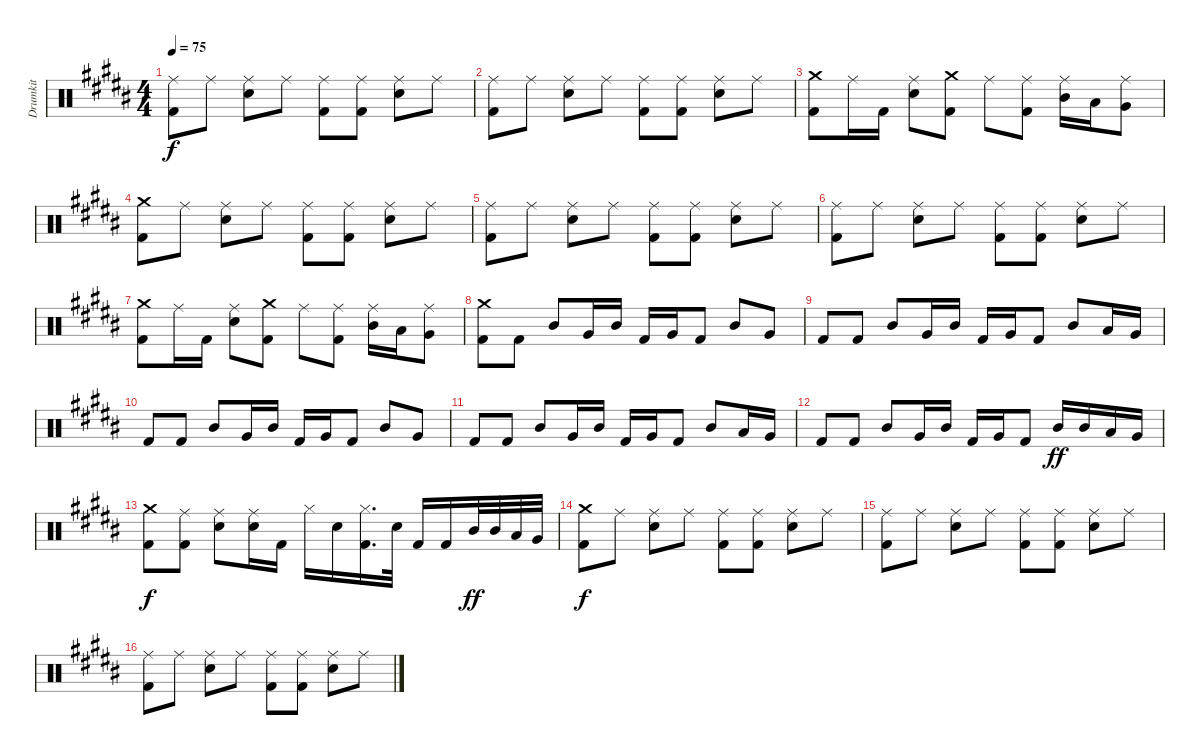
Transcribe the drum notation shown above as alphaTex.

\track ("Drumkit" "Drumkit") {instrument percussion}
\staff {score}
\articulation defaults
\ts (4 4)
\tempo 75
\clef neutral
\ks b
("Kick (hit) 2" "Ride (middle)").8{dy f} "Ride (middle)".8 ("Ride (middle)" "Snare (hit) 2").8 "Ride (middle)".8 ("Ride (middle)" "Kick (hit) 2").8 ("Ride (middle)" "Kick (hit) 2").8 ("Ride (middle)" "Snare (hit) 2").8 "Ride (middle)".8 |
("Kick (hit) 2" "Ride (middle)").8 "Ride (middle)".8 ("Ride (middle)" "Snare (hit) 2").8 "Ride (middle)".8 ("Ride (middle)" "Kick (hit) 2").8 ("Ride (middle)" "Kick (hit) 2").8 ("Ride (middle)" "Snare (hit) 2").8 "Ride (middle)".8 |
("Kick (hit) 2" "Crash medium (hit)").8 "Ride (middle)".16 "Kick (hit) 2".16 ("Ride (middle)" "Snare (hit) 2").8 ("Kick (hit) 2" "Crash medium (hit)").8 "Ride (middle)".8 ("Ride (middle)" "Kick (hit) 2").8 ("Mid Tom (hit)" "Ride (middle)").16 "Low Tom (hit)".16 ("Very Low Tom (hit)" "Ride (middle)").8 |
("Kick (hit) 2" "Crash medium (hit)").8 "Ride (middle)".8 ("Ride (middle)" "Snare (hit) 2").8 "Ride (middle)".8 ("Ride (middle)" "Kick (hit) 2").8 ("Ride (middle)" "Kick (hit) 2").8 ("Ride (middle)" "Snare (hit) 2").8 "Ride (middle)".8 |
("Kick (hit) 2" "Ride (middle)").8 "Ride (middle)".8 ("Ride (middle)" "Snare (hit) 2").8 "Ride (middle)".8 ("Ride (middle)" "Kick (hit) 2").8 ("Ride (middle)" "Kick (hit) 2").8 ("Ride (middle)" "Snare (hit) 2").8 "Ride (middle)".8 |
("Kick (hit) 2" "Ride (middle)").8 "Ride (middle)".8 ("Ride (middle)" "Snare (hit) 2").8 "Ride (middle)".8 ("Ride (middle)" "Kick (hit) 2").8 ("Ride (middle)" "Kick (hit) 2").8 ("Ride (middle)" "Snare (hit) 2").8 "Ride (middle)".8 |
("Kick (hit) 2" "Crash medium (hit)").8 "Ride (middle)".16 "Kick (hit) 2".16 ("Ride (middle)" "Snare (hit) 2").8 ("Kick (hit) 2" "Crash medium (hit)").8 "Ride (middle)".8 ("Ride (middle)" "Kick (hit) 2").8 ("Mid Tom (hit)" "Ride (middle)").16 "Low Tom (hit)".16 ("Very Low Tom (hit)" "Ride (middle)").8 |
("Kick (hit) 2" "Crash medium (hit)").8 "Kick (hit) 2".8 "Mid Tom (hit)".8 "Very Low Tom (hit)".16 "Mid Tom (hit)".16 "Kick (hit) 2".16 "Very Low Tom (hit)".16 "Kick (hit) 2".8 "Mid Tom (hit)".8 "Very Low Tom (hit)".8 |
"Kick (hit) 2".8 "Kick (hit) 2".8 "Mid Tom (hit)".8 "Very Low Tom (hit)".16 "Mid Tom (hit)".16 "Kick (hit) 2".16 "Very Low Tom (hit)".16 "Kick (hit) 2".8 "Mid Tom (hit)".8 "Low Tom (hit)".16 "Very Low Tom (hit)".16 |
"Kick (hit) 2".8 "Kick (hit) 2".8 "Mid Tom (hit)".8 "Very Low Tom (hit)".16 "Mid Tom (hit)".16 "Kick (hit) 2".16 "Very Low Tom (hit)".16 "Kick (hit) 2".8 "Mid Tom (hit)".8 "Very Low Tom (hit)".8 |
"Kick (hit) 2".8 "Kick (hit) 2".8 "Mid Tom (hit)".8 "Very Low Tom (hit)".16 "Mid Tom (hit)".16 "Kick (hit) 2".16 "Very Low Tom (hit)".16 "Kick (hit) 2".8 "Mid Tom (hit)".8 "Low Tom (hit)".16 "Very Low Tom (hit)".16 |
"Kick (hit) 2".8 "Kick (hit) 2".8 "Mid Tom (hit)".8 "Very Low Tom (hit)".16 "Mid Tom (hit)".16 "Kick (hit) 2".16 "Very Low Tom (hit)".16 "Kick (hit) 2".8 "Mid Tom (hit)".16{dy ff} "Mid Tom (hit)".16 "Low Tom (hit)".16 "Very Low Tom (hit)".16 |
("Kick (hit) 2" "Crash medium (hit)").8{dy f} ("Ride (middle)" "Kick (hit) 2").8 ("Ride (middle)" "Snare (hit) 2").8 ("Ride (middle)" "Snare (hit) 2").16 "Kick (hit) 2".16 "Hi-Hat (closed)".16 "Snare (hit) 2".16 ("Kick (hit) 2" "Hi-Hat (closed)").16{d} "Snare (hit) 2".32 "Kick (hit) 2".16 "Kick (hit) 2".16 "Mid Tom (hit)".32{dy ff} "Mid Tom (hit)".32 "Low Tom (hit)".32 "Very Low Tom (hit)".32 |
("Kick (hit) 2" "Crash medium (hit)").8{dy f} "Ride (middle)".8 ("Ride (middle)" "Snare (hit) 2").8 "Ride (middle)".8 ("Ride (middle)" "Kick (hit) 2").8 ("Ride (middle)" "Kick (hit) 2").8 ("Ride (middle)" "Snare (hit) 2").8 "Ride (middle)".8 |
("Kick (hit) 2" "Ride (middle)").8 "Ride (middle)".8 ("Ride (middle)" "Snare (hit) 2").8 "Ride (middle)".8 ("Ride (middle)" "Kick (hit) 2").8 ("Ride (middle)" "Kick (hit) 2").8 ("Ride (middle)" "Snare (hit) 2").8 "Ride (middle)".8 |
("Kick (hit) 2" "Ride (middle)").8 "Ride (middle)".8 ("Ride (middle)" "Snare (hit) 2").8 "Ride (middle)".8 ("Ride (middle)" "Kick (hit) 2").8 ("Ride (middle)" "Kick (hit) 2").8 ("Ride (middle)" "Snare (hit) 2").8 "Ride (middle)".8
